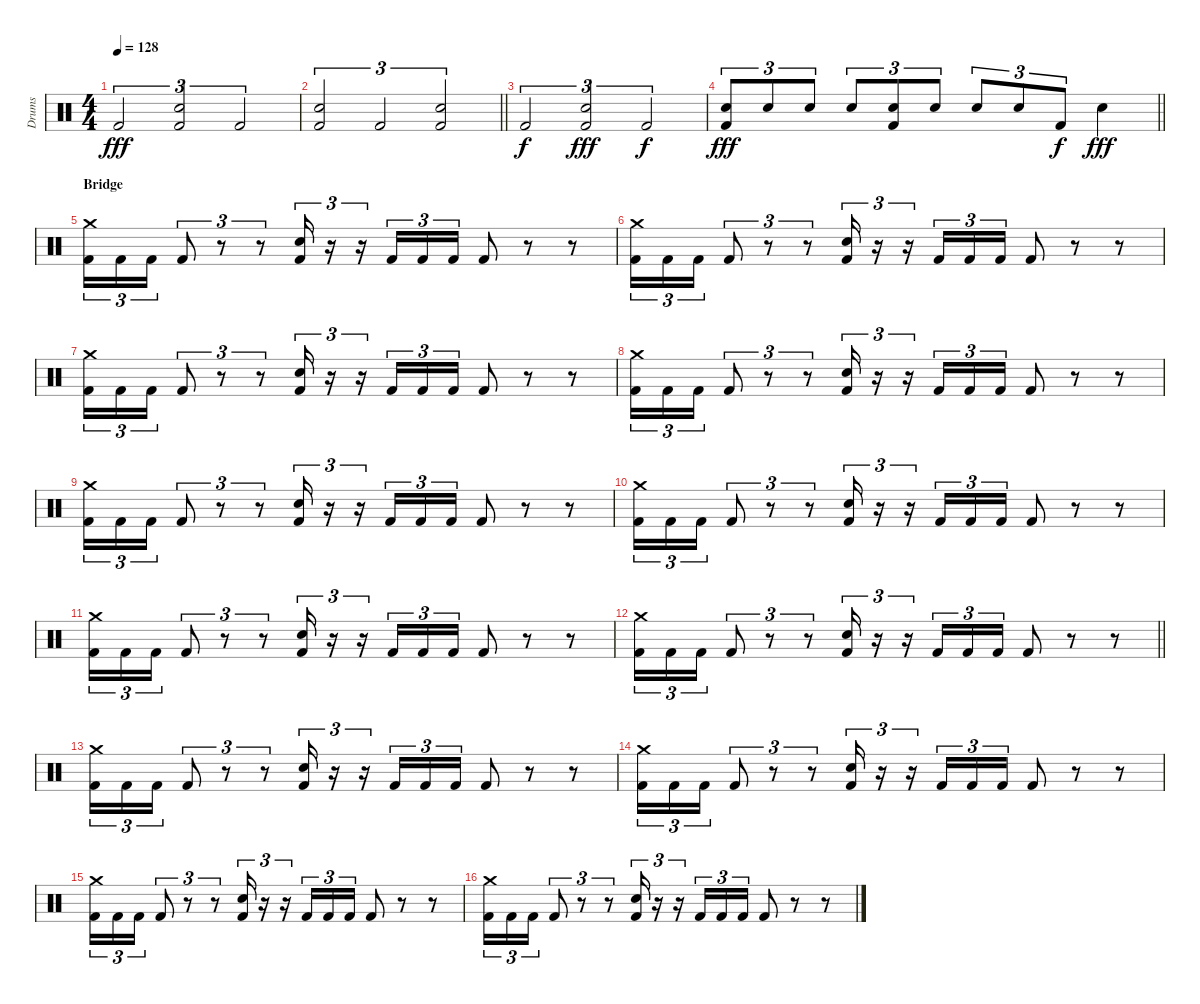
\track ("Drums" "Drums") {instrument percussion}
\staff {score}
\articulation defaults
\ts (4 4)
\tempo 128
\clef neutral
\ks c "Kick (hit) 2".2{tu (3 2) dy fff}
("Snare (hit) 2" "Kick (hit) 2").2{tu (3 2)} "Kick (hit) 2".2{tu (3 2)} |
\barLineRight lightlight
("Snare (hit) 2" "Kick (hit) 2").2{tu (3 2)} "Kick (hit) 2".2{tu (3 2)} ("Snare (hit) 2" "Kick (hit) 2").2{tu (3 2)} |
\section ("" "")
"Kick (hit) 2".2{tu (3 2) dy f} ("Snare (hit) 2" "Kick (hit) 2").2{tu (3 2) dy fff} "Kick (hit) 2".2{tu (3 2) dy f} |
\barLineRight lightlight
("Snare (hit) 2" "Kick (hit) 2").8{tu (3 2) dy fff} "Snare (hit) 2".8{tu (3 2)} "Snare (hit) 2".8{tu (3 2)} "Snare (hit) 2".8{tu (3 2)} ("Snare (hit) 2" "Kick (hit) 2").8{tu (3 2)} "Snare (hit) 2".8{tu (3 2)} "Snare (hit) 2".8{tu (3 2)} "Snare (hit) 2".8{tu (3 2)} "Kick (hit) 2".8{tu (3 2) dy f} "Snare (hit) 2".4{dy fff} |
\section ("" "Bridge")
("Crash medium (hit)" "Kick (hit) 2").16{tu (3 2)} "Kick (hit) 2".16{tu (3 2)} "Kick (hit) 2".16{tu (3 2)} "Kick (hit) 2".8{tu (3 2)} r.8{tu (3 2)} r.8{tu (3 2)} ("Snare (hit) 2" "Kick (hit) 2").16{tu (3 2)} r.16{tu (3 2)} r.16{tu (3 2)} "Kick (hit) 2".16{tu (3 2)} "Kick (hit) 2".16{tu (3 2)} "Kick (hit) 2".16{tu (3 2)} "Kick (hit) 2".8 r.8 r.8 |
("Crash medium (hit)" "Kick (hit) 2").16{tu (3 2)} "Kick (hit) 2".16{tu (3 2)} "Kick (hit) 2".16{tu (3 2)} "Kick (hit) 2".8{tu (3 2)} r.8{tu (3 2)} r.8{tu (3 2)} ("Snare (hit) 2" "Kick (hit) 2").16{tu (3 2)} r.16{tu (3 2)} r.16{tu (3 2)} "Kick (hit) 2".16{tu (3 2)} "Kick (hit) 2".16{tu (3 2)} "Kick (hit) 2".16{tu (3 2)} "Kick (hit) 2".8 r.8 r.8 |
("Crash medium (hit)" "Kick (hit) 2").16{tu (3 2)} "Kick (hit) 2".16{tu (3 2)} "Kick (hit) 2".16{tu (3 2)} "Kick (hit) 2".8{tu (3 2)} r.8{tu (3 2)} r.8{tu (3 2)} ("Snare (hit) 2" "Kick (hit) 2").16{tu (3 2)} r.16{tu (3 2)} r.16{tu (3 2)} "Kick (hit) 2".16{tu (3 2)} "Kick (hit) 2".16{tu (3 2)} "Kick (hit) 2".16{tu (3 2)} "Kick (hit) 2".8 r.8 r.8 |
("Crash medium (hit)" "Kick (hit) 2").16{tu (3 2)} "Kick (hit) 2".16{tu (3 2)} "Kick (hit) 2".16{tu (3 2)} "Kick (hit) 2".8{tu (3 2)} r.8{tu (3 2)} r.8{tu (3 2)} ("Snare (hit) 2" "Kick (hit) 2").16{tu (3 2)} r.16{tu (3 2)} r.16{tu (3 2)} "Kick (hit) 2".16{tu (3 2)} "Kick (hit) 2".16{tu (3 2)} "Kick (hit) 2".16{tu (3 2)} "Kick (hit) 2".8 r.8 r.8 |
("Crash medium (hit)" "Kick (hit) 2").16{tu (3 2)} "Kick (hit) 2".16{tu (3 2)} "Kick (hit) 2".16{tu (3 2)} "Kick (hit) 2".8{tu (3 2)} r.8{tu (3 2)} r.8{tu (3 2)} ("Snare (hit) 2" "Kick (hit) 2").16{tu (3 2)} r.16{tu (3 2)} r.16{tu (3 2)} "Kick (hit) 2".16{tu (3 2)} "Kick (hit) 2".16{tu (3 2)} "Kick (hit) 2".16{tu (3 2)} "Kick (hit) 2".8 r.8 r.8 |
("Crash medium (hit)" "Kick (hit) 2").16{tu (3 2)} "Kick (hit) 2".16{tu (3 2)} "Kick (hit) 2".16{tu (3 2)} "Kick (hit) 2".8{tu (3 2)} r.8{tu (3 2)} r.8{tu (3 2)} ("Snare (hit) 2" "Kick (hit) 2").16{tu (3 2)} r.16{tu (3 2)} r.16{tu (3 2)} "Kick (hit) 2".16{tu (3 2)} "Kick (hit) 2".16{tu (3 2)} "Kick (hit) 2".16{tu (3 2)} "Kick (hit) 2".8 r.8 r.8 |
("Crash medium (hit)" "Kick (hit) 2").16{tu (3 2)} "Kick (hit) 2".16{tu (3 2)} "Kick (hit) 2".16{tu (3 2)} "Kick (hit) 2".8{tu (3 2)} r.8{tu (3 2)} r.8{tu (3 2)} ("Snare (hit) 2" "Kick (hit) 2").16{tu (3 2)} r.16{tu (3 2)} r.16{tu (3 2)} "Kick (hit) 2".16{tu (3 2)} "Kick (hit) 2".16{tu (3 2)} "Kick (hit) 2".16{tu (3 2)} "Kick (hit) 2".8 r.8 r.8 |
\barLineRight lightlight
("Crash medium (hit)" "Kick (hit) 2").16{tu (3 2)} "Kick (hit) 2".16{tu (3 2)} "Kick (hit) 2".16{tu (3 2)} "Kick (hit) 2".8{tu (3 2)} r.8{tu (3 2)} r.8{tu (3 2)} ("Snare (hit) 2" "Kick (hit) 2").16{tu (3 2)} r.16{tu (3 2)} r.16{tu (3 2)} "Kick (hit) 2".16{tu (3 2)} "Kick (hit) 2".16{tu (3 2)} "Kick (hit) 2".16{tu (3 2)} "Kick (hit) 2".8 r.8 r.8 |
\section ("" "")
("Crash medium (hit)" "Kick (hit) 2").16{tu (3 2)} "Kick (hit) 2".16{tu (3 2)} "Kick (hit) 2".16{tu (3 2)} "Kick (hit) 2".8{tu (3 2)} r.8{tu (3 2)} r.8{tu (3 2)} ("Snare (hit) 2" "Kick (hit) 2").16{tu (3 2)} r.16{tu (3 2)} r.16{tu (3 2)} "Kick (hit) 2".16{tu (3 2)} "Kick (hit) 2".16{tu (3 2)} "Kick (hit) 2".16{tu (3 2)} "Kick (hit) 2".8 r.8 r.8 |
("Crash medium (hit)" "Kick (hit) 2").16{tu (3 2)} "Kick (hit) 2".16{tu (3 2)} "Kick (hit) 2".16{tu (3 2)} "Kick (hit) 2".8{tu (3 2)} r.8{tu (3 2)} r.8{tu (3 2)} ("Snare (hit) 2" "Kick (hit) 2").16{tu (3 2)} r.16{tu (3 2)} r.16{tu (3 2)} "Kick (hit) 2".16{tu (3 2)} "Kick (hit) 2".16{tu (3 2)} "Kick (hit) 2".16{tu (3 2)} "Kick (hit) 2".8 r.8 r.8 |
("Crash medium (hit)" "Kick (hit) 2").16{tu (3 2)} "Kick (hit) 2".16{tu (3 2)} "Kick (hit) 2".16{tu (3 2)} "Kick (hit) 2".8{tu (3 2)} r.8{tu (3 2)} r.8{tu (3 2)} ("Snare (hit) 2" "Kick (hit) 2").16{tu (3 2)} r.16{tu (3 2)} r.16{tu (3 2)} "Kick (hit) 2".16{tu (3 2)} "Kick (hit) 2".16{tu (3 2)} "Kick (hit) 2".16{tu (3 2)} "Kick (hit) 2".8 r.8 r.8 |
("Crash medium (hit)" "Kick (hit) 2").16{tu (3 2)} "Kick (hit) 2".16{tu (3 2)} "Kick (hit) 2".16{tu (3 2)} "Kick (hit) 2".8{tu (3 2)} r.8{tu (3 2)} r.8{tu (3 2)} ("Snare (hit) 2" "Kick (hit) 2").16{tu (3 2)} r.16{tu (3 2)} r.16{tu (3 2)} "Kick (hit) 2".16{tu (3 2)} "Kick (hit) 2".16{tu (3 2)} "Kick (hit) 2".16{tu (3 2)} "Kick (hit) 2".8 r.8 r.8
